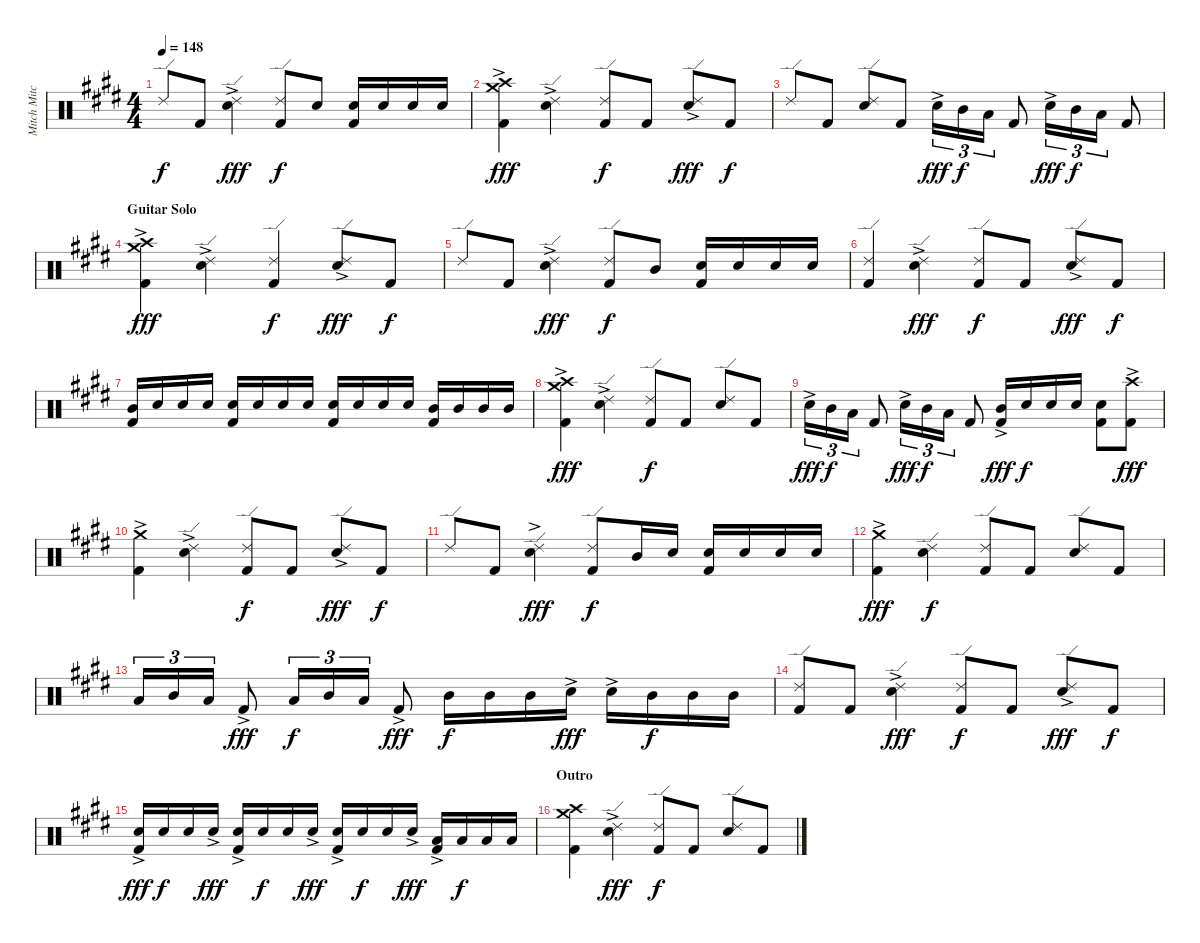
\track ("Mitch Mitchell" "Mitch Mitc") {instrument percussion}
\staff {score}
\articulation defaults
\ts (4 4)
\tempo 148
\clef neutral
\ks e "Ride (edge) 2".8{dy f} "Kick (hit) 2".8
("Ride (edge) 2"{ac} "Snare (hit) 2"{ac}).4{dy fff} ("Ride (edge) 2" "Kick (hit) 2").8{dy f} "Snare (hit) 2".8 ("Snare (hit) 2" "Kick (hit) 2").16 "Snare (hit) 2".16 "Snare (hit) 2".16 "Snare (hit) 2".16 |
("Crash high (hit)"{ac} "Crash medium (hit)"{ac} "Kick (hit) 2"{ac}).4{dy fff} ("Ride (edge) 2"{ac} "Snare (hit) 2"{ac}).4 ("Ride (edge) 2" "Kick (hit) 2").8{dy f} "Kick (hit) 2".8 ("Ride (edge) 2"{ac} "Snare (hit) 2"{ac}).8{dy fff} "Kick (hit) 2".8{dy f} |
"Ride (edge) 2".8 "Kick (hit) 2".8 ("Ride (edge) 2" "Snare (hit) 2").8 "Kick (hit) 2".8 "Snare (hit) 2"{ac}.16{tu (3 2) dy fff} "Mid Tom (hit)".16{tu (3 2) dy f} "Low Tom (hit)".16{tu (3 2)} "Kick (hit) 2".8 "Snare (hit) 2"{ac}.16{tu (3 2) dy fff} "Mid Tom (hit)".16{tu (3 2) dy f} "Low Tom (hit)".16{tu (3 2)} "Kick (hit) 2".8 |
\section ("" "Guitar Solo")
("Crash high (hit)"{ac} "Crash medium (hit)"{ac} "Kick (hit) 2"{ac}).4{dy fff} ("Ride (edge) 2"{ac} "Snare (hit) 2"{ac}).4 ("Ride (edge) 2" "Kick (hit) 2").4{dy f} ("Ride (edge) 2"{ac} "Snare (hit) 2"{ac}).8{dy fff} "Kick (hit) 2".8{dy f} |
"Ride (edge) 2".8 "Kick (hit) 2".8 ("Ride (edge) 2"{ac} "Snare (hit) 2"{ac}).4{dy fff} ("Ride (edge) 2" "Kick (hit) 2").8{dy f} "Mid Tom (hit)".8 ("Snare (hit) 2" "Kick (hit) 2").16 "Snare (hit) 2".16 "Snare (hit) 2".16 "Snare (hit) 2".16 |
("Ride (edge) 2" "Kick (hit) 2").4 ("Ride (edge) 2"{ac} "Snare (hit) 2"{ac}).4{dy fff} ("Ride (edge) 2" "Kick (hit) 2").8{dy f} "Kick (hit) 2".8 ("Ride (edge) 2"{ac} "Snare (hit) 2"{ac}).8{dy fff} "Kick (hit) 2".8{dy f} |
("Mid Tom (hit)" "Kick (hit) 2").16 "Snare (hit) 2".16 "Snare (hit) 2".16 "Snare (hit) 2".16 ("Snare (hit) 2" "Kick (hit) 2").16 "Snare (hit) 2".16 "Snare (hit) 2".16 "Snare (hit) 2".16 ("Snare (hit) 2" "Kick (hit) 2").16 "Snare (hit) 2".16 "Snare (hit) 2".16 "Snare (hit) 2".16 ("Mid Tom (hit)" "Kick (hit) 2").16 "Mid Tom (hit)".16 "Mid Tom (hit)".16 "Mid Tom (hit)".16 |
("Crash high (hit)"{ac} "Crash medium (hit)"{ac} "Kick (hit) 2"{ac}).4{dy fff} ("Ride (edge) 2"{ac} "Snare (hit) 2"{ac}).4 ("Ride (edge) 2" "Kick (hit) 2").8{dy f} "Kick (hit) 2".8 ("Ride (edge) 2" "Snare (hit) 2").8 "Kick (hit) 2".8 |
"Snare (hit) 2"{ac}.16{tu (3 2) dy fff} "Mid Tom (hit)".16{tu (3 2) dy f} "Low Tom (hit)".16{tu (3 2)} "Kick (hit) 2".8 "Snare (hit) 2"{ac}.16{tu (3 2) dy fff} "Mid Tom (hit)".16{tu (3 2) dy f} "Low Tom (hit)".16{tu (3 2)} "Kick (hit) 2".8 ("Mid Tom (hit)"{ac} "Kick (hit) 2").16{dy fff} "Snare (hit) 2".16{dy f} "Snare (hit) 2".16 "Snare (hit) 2".16 ("Snare (hit) 2" "Kick (hit) 2").8 ("Crash high (hit)"{ac} "Kick (hit) 2"{ac}).8{dy fff} |
("Crash medium (hit)"{ac} "Kick (hit) 2"{ac}).4 ("Ride (edge) 2"{ac} "Snare (hit) 2"{ac}).4 ("Ride (edge) 2" "Kick (hit) 2").8{dy f} "Kick (hit) 2".8 ("Ride (edge) 2"{ac} "Snare (hit) 2"{ac}).8{dy fff} "Kick (hit) 2".8{dy f} |
"Ride (edge) 2".8 "Kick (hit) 2".8 ("Ride (edge) 2" "Snare (hit) 2"{ac}).4{dy fff} ("Ride (edge) 2" "Kick (hit) 2").8{dy f} "Mid Tom (hit)".16 "Snare (hit) 2".16 ("Snare (hit) 2" "Kick (hit) 2").16 "Snare (hit) 2".16 "Snare (hit) 2".16 "Snare (hit) 2".16 |
("Crash medium (hit)"{ac} "Kick (hit) 2"{ac}).4{dy fff} ("Ride (edge) 2" "Snare (hit) 2").4{dy f} ("Ride (edge) 2" "Kick (hit) 2").8 "Kick (hit) 2".8 ("Ride (edge) 2" "Snare (hit) 2").8 "Kick (hit) 2".8 |
"Low Tom (hit)".16{tu (3 2)} "Mid Tom (hit)".16{tu (3 2)} "Low Tom (hit)".16{tu (3 2)} "Kick (hit) 2"{ac}.8{dy fff} "Low Tom (hit)".16{tu (3 2) dy f} "Mid Tom (hit)".16{tu (3 2)} "Low Tom (hit)".16{tu (3 2)} "Kick (hit) 2"{ac}.8{dy fff} "Mid Tom (hit)".16{dy f} "Mid Tom (hit)".16 "Mid Tom (hit)".16 "Snare (hit) 2"{ac}.16{dy fff} "Snare (hit) 2"{ac}.16 "Mid Tom (hit)".16{dy f} "Mid Tom (hit)".16 "Mid Tom (hit)".16 |
("Ride (edge) 2" "Kick (hit) 2").8 "Kick (hit) 2".8 ("Ride (edge) 2"{ac} "Snare (hit) 2"{ac}).4{dy fff} ("Ride (edge) 2" "Kick (hit) 2").8{dy f} "Kick (hit) 2".8 ("Ride (edge) 2"{ac} "Snare (hit) 2"{ac}).8{dy fff} "Kick (hit) 2".8{dy f} |
("Snare (hit) 2"{ac} "Kick (hit) 2").16{dy fff} "Snare (hit) 2".16{dy f} "Snare (hit) 2".16 "Snare (hit) 2"{ac}.16{dy fff} ("Snare (hit) 2"{ac} "Kick (hit) 2").16 "Snare (hit) 2".16{dy f} "Snare (hit) 2".16 "Snare (hit) 2"{ac}.16{dy fff} ("Snare (hit) 2"{ac} "Kick (hit) 2").16 "Snare (hit) 2".16{dy f} "Snare (hit) 2".16 "Snare (hit) 2"{ac}.16{dy fff} ("Low Tom (hit)"{ac} "Kick (hit) 2").16 "Low Tom (hit)".16{dy f} "Low Tom (hit)".16 "Low Tom (hit)".16 |
\section ("" "Outro")
("Crash high (hit)" "Crash medium (hit)" "Kick (hit) 2").4 ("Ride (edge) 2"{ac} "Snare (hit) 2"{ac}).4{dy fff} ("Ride (edge) 2" "Kick (hit) 2").8{dy f} "Kick (hit) 2".8 ("Ride (edge) 2" "Snare (hit) 2").8 "Kick (hit) 2".8
